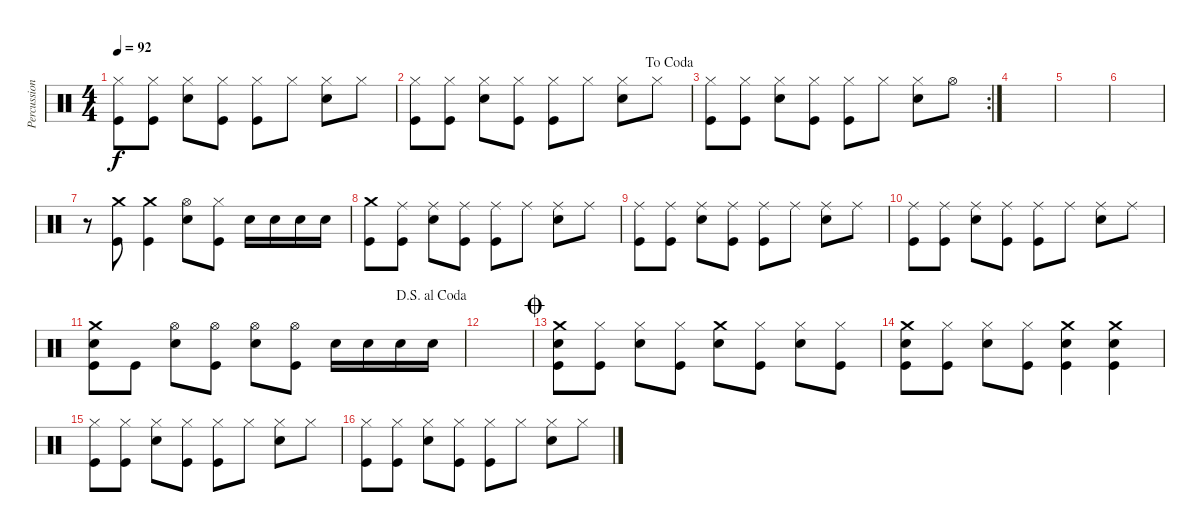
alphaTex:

\track ("Percussion" "Percussion") {instrument percussion}
\staff {score}
\articulation defaults
\ts (4 4)
\tempo 92
\clef neutral
\ks c
("Hi-Hat (closed)" "Kick (hit)").8{dy f} ("Hi-Hat (closed)" "Kick (hit)").8 ("Hi-Hat (closed)" "Snare (hit) 2").8 ("Hi-Hat (closed)" "Kick (hit)").8 ("Hi-Hat (closed)" "Kick (hit)").8 "Hi-Hat (closed)".8 ("Hi-Hat (closed)" "Snare (hit) 2").8 "Hi-Hat (closed)".8 |
\jump dacoda
("Hi-Hat (closed)" "Kick (hit)").8 ("Hi-Hat (closed)" "Kick (hit)").8 ("Hi-Hat (closed)" "Snare (hit) 2").8 ("Hi-Hat (closed)" "Kick (hit)").8 ("Hi-Hat (closed)" "Kick (hit)").8 "Hi-Hat (closed)".8 ("Hi-Hat (closed)" "Snare (hit) 2").8 "Hi-Hat (closed)".8 |
\rc 2
("Hi-Hat (closed)" "Kick (hit)").8 ("Hi-Hat (closed)" "Kick (hit)").8 ("Hi-Hat (closed)" "Snare (hit) 2").8 ("Hi-Hat (closed)" "Kick (hit)").8 ("Hi-Hat (closed)" "Kick (hit)").8 "Hi-Hat (closed)".8 ("Hi-Hat (closed)" "Snare (hit) 2").8 "Hi-Hat (open)".8 |
|
|
|
r.8 ("Crash medium (hit)" "Kick (hit)").8 ("Crash medium (hit)" "Kick (hit)").4 ("Hi-Hat (open)" "Snare (hit) 2").8 ("Hi-Hat (closed)" "Kick (hit)").8 "Snare (hit) 2".16 "Snare (hit) 2".16 "Snare (hit) 2".16 "Snare (hit) 2".16 |
("Crash medium (hit)" "Kick (hit)").8 ("Ride (middle)" "Kick (hit)").8 ("Ride (middle)" "Snare (hit) 2").8 ("Ride (middle)" "Kick (hit)").8 ("Ride (middle)" "Kick (hit)").8 "Ride (middle)".8 ("Ride (middle)" "Snare (hit) 2").8 "Ride (middle)".8 |
("Ride (middle)" "Kick (hit)").8 ("Ride (middle)" "Kick (hit)").8 ("Ride (middle)" "Snare (hit) 2").8 ("Ride (middle)" "Kick (hit)").8 ("Ride (middle)" "Kick (hit)").8 "Ride (middle)".8 ("Ride (middle)" "Snare (hit) 2").8 "Ride (middle)".8 |
("Ride (middle)" "Kick (hit)").8 ("Ride (middle)" "Kick (hit)").8 ("Ride (middle)" "Snare (hit) 2").8 ("Ride (middle)" "Kick (hit)").8 ("Ride (middle)" "Kick (hit)").8 "Ride (middle)".8 ("Ride (middle)" "Snare (hit) 2").8 "Ride (middle)".8 |
\jump dalsegnoalcoda
("Crash medium (hit)" "Snare (hit) 2" "Kick (hit)").8 "Kick (hit)".8 ("Hi-Hat (open)" "Snare (hit) 2").8 ("Hi-Hat (open)" "Kick (hit)").8 ("Hi-Hat (open)" "Snare (hit) 2").8 ("Hi-Hat (open)" "Kick (hit)").8 "Snare (hit) 2".16 "Snare (hit) 2".16 "Snare (hit) 2".16 "Snare (hit) 2".16 |
|
\jump coda
("Crash medium (hit)" "Snare (hit) 2" "Kick (hit)").8 ("Hi-Hat (closed)" "Kick (hit)").8 ("Hi-Hat (closed)" "Snare (hit) 2").8 ("Hi-Hat (closed)" "Kick (hit)").8 ("Crash medium (hit)" "Snare (hit) 2").8 ("Hi-Hat (closed)" "Kick (hit)").8 ("Hi-Hat (closed)" "Snare (hit) 2").8 ("Hi-Hat (closed)" "Kick (hit)").8 |
("Crash medium (hit)" "Snare (hit) 2" "Kick (hit)").8 ("Hi-Hat (closed)" "Kick (hit)").8 ("Hi-Hat (closed)" "Snare (hit) 2").8 ("Hi-Hat (closed)" "Kick (hit)").8 ("Crash medium (hit)" "Snare (hit) 2" "Kick (hit)").4 ("Crash medium (hit)" "Snare (hit) 2" "Kick (hit)").4 |
("Hi-Hat (closed)" "Kick (hit)").8 ("Hi-Hat (closed)" "Kick (hit)").8 ("Hi-Hat (closed)" "Snare (hit) 2").8 ("Hi-Hat (closed)" "Kick (hit)").8 ("Hi-Hat (closed)" "Kick (hit)").8 "Hi-Hat (closed)".8 ("Hi-Hat (closed)" "Snare (hit) 2").8 "Hi-Hat (closed)".8 |
("Hi-Hat (closed)" "Kick (hit)").8 ("Hi-Hat (closed)" "Kick (hit)").8 ("Hi-Hat (closed)" "Snare (hit) 2").8 ("Hi-Hat (closed)" "Kick (hit)").8 ("Hi-Hat (closed)" "Kick (hit)").8 "Hi-Hat (closed)".8 ("Hi-Hat (closed)" "Snare (hit) 2").8 "Hi-Hat (closed)".8
